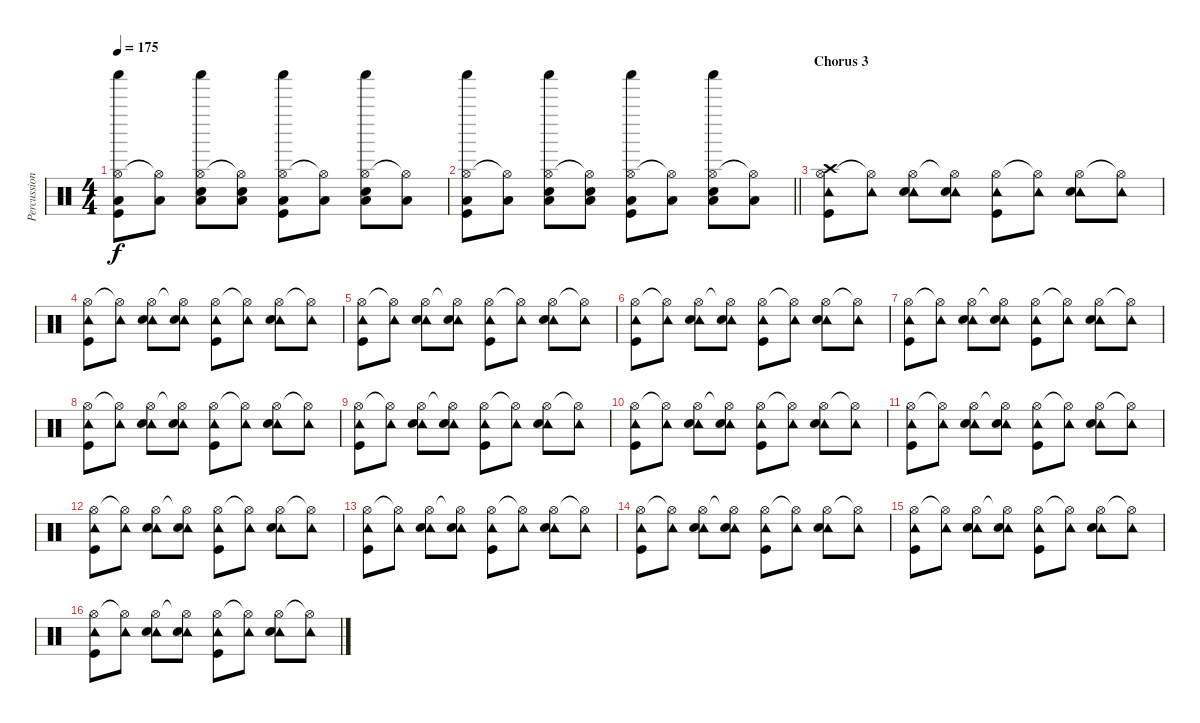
\track ("Percussion" "Percussion") {instrument percussion}
\staff {score}
\articulation defaults
\ts (4 4)
\tempo 175
\clef neutral
\ks c
("Hi-Hat (open)" "Shaker (hit)" "Low Floor Tom (hit)" "Kick (hit)").8{dy f} ("Hi-Hat (open)"{t} "Low Floor Tom (hit)").8 ("Hi-Hat (open)" "Shaker (hit)" "Snare (hit) 2" "Low Floor Tom (hit)").8 ("Hi-Hat (open)"{t} "Snare (hit) 2" "Low Floor Tom (hit)").8 ("Hi-Hat (open)" "Shaker (hit)" "Low Floor Tom (hit)" "Kick (hit)").8 ("Hi-Hat (open)"{t} "Low Floor Tom (hit)").8 ("Hi-Hat (open)" "Shaker (hit)" "Snare (hit) 2" "Low Floor Tom (hit)").8 ("Hi-Hat (open)"{t} "Low Floor Tom (hit)").8 |
\barLineRight lightlight
("Hi-Hat (open)" "Shaker (hit)" "Low Floor Tom (hit)" "Kick (hit)").8 ("Hi-Hat (open)"{t} "Low Floor Tom (hit)").8 ("Hi-Hat (open)" "Shaker (hit)" "Snare (hit) 2" "Low Floor Tom (hit)").8 ("Hi-Hat (open)"{t} "Snare (hit) 2" "Low Floor Tom (hit)").8 ("Hi-Hat (open)" "Shaker (hit)" "Low Floor Tom (hit)" "Kick (hit)").8 ("Hi-Hat (open)"{t} "Low Floor Tom (hit)").8 ("Hi-Hat (open)" "Shaker (hit)" "Snare (hit) 2" "Low Floor Tom (hit)").8 ("Hi-Hat (open)"{t} "Low Floor Tom (hit)").8 |
\section ("" "Chorus 3")
("Hi-Hat (open)" "Tambourine (hit)" "Crash high (hit)" "Kick (hit)").8 ("Hi-Hat (open)"{t} "Tambourine (hit)").8 ("Hi-Hat (open)" "Tambourine (hit)" "Snare (hit) 2").8 ("Hi-Hat (open)"{t} "Tambourine (hit)" "Snare (hit) 2").8 ("Hi-Hat (open)" "Tambourine (hit)" "Kick (hit)").8 ("Hi-Hat (open)"{t} "Tambourine (hit)").8 ("Hi-Hat (open)" "Tambourine (hit)" "Snare (hit) 2").8 ("Hi-Hat (open)"{t} "Tambourine (hit)").8 |
("Hi-Hat (open)" "Tambourine (hit)" "Kick (hit)").8 ("Hi-Hat (open)"{t} "Tambourine (hit)").8 ("Hi-Hat (open)" "Tambourine (hit)" "Snare (hit) 2").8 ("Hi-Hat (open)"{t} "Tambourine (hit)" "Snare (hit) 2").8 ("Hi-Hat (open)" "Tambourine (hit)" "Kick (hit)").8 ("Hi-Hat (open)"{t} "Tambourine (hit)").8 ("Hi-Hat (open)" "Tambourine (hit)" "Snare (hit) 2").8 ("Hi-Hat (open)"{t} "Tambourine (hit)").8 |
("Hi-Hat (open)" "Tambourine (hit)" "Kick (hit)").8 ("Hi-Hat (open)"{t} "Tambourine (hit)").8 ("Hi-Hat (open)" "Tambourine (hit)" "Snare (hit) 2").8 ("Hi-Hat (open)"{t} "Tambourine (hit)" "Snare (hit) 2").8 ("Hi-Hat (open)" "Tambourine (hit)" "Kick (hit)").8 ("Hi-Hat (open)"{t} "Tambourine (hit)").8 ("Hi-Hat (open)" "Tambourine (hit)" "Snare (hit) 2").8 ("Hi-Hat (open)"{t} "Tambourine (hit)").8 |
("Hi-Hat (open)" "Tambourine (hit)" "Kick (hit)").8 ("Hi-Hat (open)"{t} "Tambourine (hit)").8 ("Hi-Hat (open)" "Tambourine (hit)" "Snare (hit) 2").8 ("Hi-Hat (open)"{t} "Tambourine (hit)" "Snare (hit) 2").8 ("Hi-Hat (open)" "Tambourine (hit)" "Kick (hit)").8 ("Hi-Hat (open)"{t} "Tambourine (hit)").8 ("Hi-Hat (open)" "Tambourine (hit)" "Snare (hit) 2").8 ("Hi-Hat (open)"{t} "Tambourine (hit)").8 |
("Hi-Hat (open)" "Tambourine (hit)" "Kick (hit)").8 ("Hi-Hat (open)"{t} "Tambourine (hit)").8 ("Hi-Hat (open)" "Tambourine (hit)" "Snare (hit) 2").8 ("Hi-Hat (open)"{t} "Tambourine (hit)" "Snare (hit) 2").8 ("Hi-Hat (open)" "Tambourine (hit)" "Kick (hit)").8 ("Hi-Hat (open)"{t} "Tambourine (hit)").8 ("Hi-Hat (open)" "Tambourine (hit)" "Snare (hit) 2").8 ("Hi-Hat (open)"{t} "Tambourine (hit)").8 |
("Hi-Hat (open)" "Tambourine (hit)" "Kick (hit)").8 ("Hi-Hat (open)"{t} "Tambourine (hit)").8 ("Hi-Hat (open)" "Tambourine (hit)" "Snare (hit) 2").8 ("Hi-Hat (open)"{t} "Tambourine (hit)" "Snare (hit) 2").8 ("Hi-Hat (open)" "Tambourine (hit)" "Kick (hit)").8 ("Hi-Hat (open)"{t} "Tambourine (hit)").8 ("Hi-Hat (open)" "Tambourine (hit)" "Snare (hit) 2").8 ("Hi-Hat (open)"{t} "Tambourine (hit)").8 |
("Hi-Hat (open)" "Tambourine (hit)" "Kick (hit)").8 ("Hi-Hat (open)"{t} "Tambourine (hit)").8 ("Hi-Hat (open)" "Tambourine (hit)" "Snare (hit) 2").8 ("Hi-Hat (open)"{t} "Tambourine (hit)" "Snare (hit) 2").8 ("Hi-Hat (open)" "Tambourine (hit)" "Kick (hit)").8 ("Hi-Hat (open)"{t} "Tambourine (hit)").8 ("Hi-Hat (open)" "Tambourine (hit)" "Snare (hit) 2").8 ("Hi-Hat (open)"{t} "Tambourine (hit)").8 |
("Hi-Hat (open)" "Tambourine (hit)" "Kick (hit)").8 ("Hi-Hat (open)"{t} "Tambourine (hit)").8 ("Hi-Hat (open)" "Tambourine (hit)" "Snare (hit) 2").8 ("Hi-Hat (open)"{t} "Tambourine (hit)" "Snare (hit) 2").8 ("Hi-Hat (open)" "Tambourine (hit)" "Kick (hit)").8 ("Hi-Hat (open)"{t} "Tambourine (hit)").8 ("Hi-Hat (open)" "Tambourine (hit)" "Snare (hit) 2").8 ("Hi-Hat (open)"{t} "Tambourine (hit)").8 |
("Hi-Hat (open)" "Tambourine (hit)" "Kick (hit)").8 ("Hi-Hat (open)"{t} "Tambourine (hit)").8 ("Hi-Hat (open)" "Tambourine (hit)" "Snare (hit) 2").8 ("Hi-Hat (open)"{t} "Tambourine (hit)" "Snare (hit) 2").8 ("Hi-Hat (open)" "Tambourine (hit)" "Kick (hit)").8 ("Hi-Hat (open)"{t} "Tambourine (hit)").8 ("Hi-Hat (open)" "Tambourine (hit)" "Snare (hit) 2").8 ("Hi-Hat (open)"{t} "Tambourine (hit)").8 |
("Hi-Hat (open)" "Tambourine (hit)" "Kick (hit)").8 ("Hi-Hat (open)"{t} "Tambourine (hit)").8 ("Hi-Hat (open)" "Tambourine (hit)" "Snare (hit) 2").8 ("Hi-Hat (open)"{t} "Tambourine (hit)" "Snare (hit) 2").8 ("Hi-Hat (open)" "Tambourine (hit)" "Kick (hit)").8 ("Hi-Hat (open)"{t} "Tambourine (hit)").8 ("Hi-Hat (open)" "Tambourine (hit)" "Snare (hit) 2").8 ("Hi-Hat (open)"{t} "Tambourine (hit)").8 |
("Hi-Hat (open)" "Tambourine (hit)" "Kick (hit)").8 ("Hi-Hat (open)"{t} "Tambourine (hit)").8 ("Hi-Hat (open)" "Tambourine (hit)" "Snare (hit) 2").8 ("Hi-Hat (open)"{t} "Tambourine (hit)" "Snare (hit) 2").8 ("Hi-Hat (open)" "Tambourine (hit)" "Kick (hit)").8 ("Hi-Hat (open)"{t} "Tambourine (hit)").8 ("Hi-Hat (open)" "Tambourine (hit)" "Snare (hit) 2").8 ("Hi-Hat (open)"{t} "Tambourine (hit)").8 |
("Hi-Hat (open)" "Tambourine (hit)" "Kick (hit)").8 ("Hi-Hat (open)"{t} "Tambourine (hit)").8 ("Hi-Hat (open)" "Tambourine (hit)" "Snare (hit) 2").8 ("Hi-Hat (open)"{t} "Tambourine (hit)" "Snare (hit) 2").8 ("Hi-Hat (open)" "Tambourine (hit)" "Kick (hit)").8 ("Hi-Hat (open)"{t} "Tambourine (hit)").8 ("Hi-Hat (open)" "Tambourine (hit)" "Snare (hit) 2").8 ("Hi-Hat (open)"{t} "Tambourine (hit)").8 |
("Hi-Hat (open)" "Tambourine (hit)" "Kick (hit)").8 ("Hi-Hat (open)"{t} "Tambourine (hit)").8 ("Hi-Hat (open)" "Tambourine (hit)" "Snare (hit) 2").8 ("Hi-Hat (open)"{t} "Tambourine (hit)" "Snare (hit) 2").8 ("Hi-Hat (open)" "Tambourine (hit)" "Kick (hit)").8 ("Hi-Hat (open)"{t} "Tambourine (hit)").8 ("Hi-Hat (open)" "Tambourine (hit)" "Snare (hit) 2").8 ("Hi-Hat (open)"{t} "Tambourine (hit)").8 |
("Hi-Hat (open)" "Tambourine (hit)" "Kick (hit)").8 ("Hi-Hat (open)"{t} "Tambourine (hit)").8 ("Hi-Hat (open)" "Tambourine (hit)" "Snare (hit) 2").8 ("Hi-Hat (open)"{t} "Tambourine (hit)" "Snare (hit) 2").8 ("Hi-Hat (open)" "Tambourine (hit)" "Kick (hit)").8 ("Hi-Hat (open)"{t} "Tambourine (hit)").8 ("Hi-Hat (open)" "Tambourine (hit)" "Snare (hit) 2").8 ("Hi-Hat (open)"{t} "Tambourine (hit)").8
